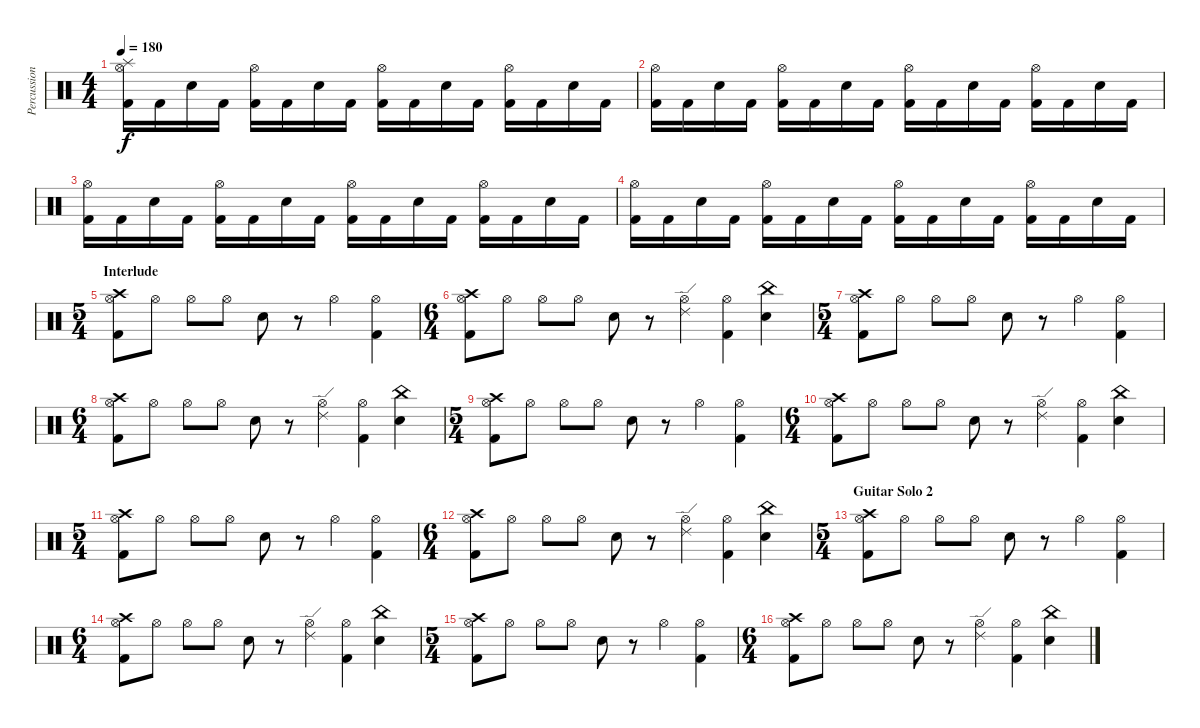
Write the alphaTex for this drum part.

\track ("Percussions" "Percussion") {instrument percussion}
\staff {score}
\articulation defaults
\ts (4 4)
\tempo 180
\clef neutral
\ks c
("Splash (hit)" "Hi-Hat (open)" "Kick (hit) 2").16{dy f} "Kick (hit) 2".16 "Electric Snare (hit)".16 "Kick (hit) 2".16 ("Hi-Hat (open)" "Kick (hit) 2").16 "Kick (hit) 2".16 "Electric Snare (hit)".16 "Kick (hit) 2".16 ("Hi-Hat (open)" "Kick (hit) 2").16 "Kick (hit) 2".16 "Electric Snare (hit)".16 "Kick (hit) 2".16 ("Hi-Hat (open)" "Kick (hit) 2").16 "Kick (hit) 2".16 "Electric Snare (hit)".16 "Kick (hit) 2".16 |
("Hi-Hat (open)" "Kick (hit) 2").16 "Kick (hit) 2".16 "Electric Snare (hit)".16 "Kick (hit) 2".16 ("Hi-Hat (open)" "Kick (hit) 2").16 "Kick (hit) 2".16 "Electric Snare (hit)".16 "Kick (hit) 2".16 ("Hi-Hat (open)" "Kick (hit) 2").16 "Kick (hit) 2".16 "Electric Snare (hit)".16 "Kick (hit) 2".16 ("Hi-Hat (open)" "Kick (hit) 2").16 "Kick (hit) 2".16 "Electric Snare (hit)".16 "Kick (hit) 2".16 |
("Hi-Hat (open)" "Kick (hit) 2").16 "Kick (hit) 2".16 "Electric Snare (hit)".16 "Kick (hit) 2".16 ("Hi-Hat (open)" "Kick (hit) 2").16 "Kick (hit) 2".16 "Electric Snare (hit)".16 "Kick (hit) 2".16 ("Hi-Hat (open)" "Kick (hit) 2").16 "Kick (hit) 2".16 "Electric Snare (hit)".16 "Kick (hit) 2".16 ("Hi-Hat (open)" "Kick (hit) 2").16 "Kick (hit) 2".16 "Electric Snare (hit)".16 "Kick (hit) 2".16 |
("Hi-Hat (open)" "Kick (hit) 2").16 "Kick (hit) 2".16 "Electric Snare (hit)".16 "Kick (hit) 2".16 ("Hi-Hat (open)" "Kick (hit) 2").16 "Kick (hit) 2".16 "Electric Snare (hit)".16 "Kick (hit) 2".16 ("Hi-Hat (open)" "Kick (hit) 2").16 "Kick (hit) 2".16 "Electric Snare (hit)".16 "Kick (hit) 2".16 ("Hi-Hat (open)" "Kick (hit) 2").16 "Kick (hit) 2".16 "Electric Snare (hit)".16 "Kick (hit) 2".16 |
\ts (5 4)
\section ("" "Interlude")
("Crash high (hit)" "Hi-Hat (open)" "Kick (hit) 2").8 "Hi-Hat (open)".8 "Hi-Hat (open)".8 "Hi-Hat (open)".8 "Electric Snare (hit)".8 r.8 "Hi-Hat (open)".4 ("Hi-Hat (open)" "Kick (hit) 2").4 |
\ts (6 4)
("Crash high (hit)" "Hi-Hat (open)" "Kick (hit) 2").8 "Hi-Hat (open)".8 "Hi-Hat (open)".8 "Hi-Hat (open)".8 "Electric Snare (hit)".8 r.8 ("Ride (edge) 2" "Hi-Hat (open)").4 ("Hi-Hat (open)" "Kick (hit) 2").4 ("China (hit)" "Electric Snare (hit)").4 |
\ts (5 4)
("Crash high (hit)" "Hi-Hat (open)" "Kick (hit) 2").8 "Hi-Hat (open)".8 "Hi-Hat (open)".8 "Hi-Hat (open)".8 "Electric Snare (hit)".8 r.8 "Hi-Hat (open)".4 ("Hi-Hat (open)" "Kick (hit) 2").4 |
\ts (6 4)
("Crash high (hit)" "Hi-Hat (open)" "Kick (hit) 2").8 "Hi-Hat (open)".8 "Hi-Hat (open)".8 "Hi-Hat (open)".8 "Electric Snare (hit)".8 r.8 ("Ride (edge) 2" "Hi-Hat (open)").4 ("Hi-Hat (open)" "Kick (hit) 2").4 ("China (hit)" "Electric Snare (hit)").4 |
\ts (5 4)
("Crash high (hit)" "Hi-Hat (open)" "Kick (hit) 2").8 "Hi-Hat (open)".8 "Hi-Hat (open)".8 "Hi-Hat (open)".8 "Electric Snare (hit)".8 r.8 "Hi-Hat (open)".4 ("Hi-Hat (open)" "Kick (hit) 2").4 |
\ts (6 4)
("Crash high (hit)" "Hi-Hat (open)" "Kick (hit) 2").8 "Hi-Hat (open)".8 "Hi-Hat (open)".8 "Hi-Hat (open)".8 "Electric Snare (hit)".8 r.8 ("Ride (edge) 2" "Hi-Hat (open)").4 ("Hi-Hat (open)" "Kick (hit) 2").4 ("China (hit)" "Electric Snare (hit)").4 |
\ts (5 4)
("Crash high (hit)" "Hi-Hat (open)" "Kick (hit) 2").8 "Hi-Hat (open)".8 "Hi-Hat (open)".8 "Hi-Hat (open)".8 "Electric Snare (hit)".8 r.8 "Hi-Hat (open)".4 ("Hi-Hat (open)" "Kick (hit) 2").4 |
\ts (6 4)
("Crash high (hit)" "Hi-Hat (open)" "Kick (hit) 2").8 "Hi-Hat (open)".8 "Hi-Hat (open)".8 "Hi-Hat (open)".8 "Electric Snare (hit)".8 r.8 ("Ride (edge) 2" "Hi-Hat (open)").4 ("Hi-Hat (open)" "Kick (hit) 2").4 ("China (hit)" "Electric Snare (hit)").4 |
\ts (5 4)
\section ("" "Guitar Solo 2")
("Crash high (hit)" "Hi-Hat (open)" "Kick (hit) 2").8 "Hi-Hat (open)".8 "Hi-Hat (open)".8 "Hi-Hat (open)".8 "Electric Snare (hit)".8 r.8 "Hi-Hat (open)".4 ("Hi-Hat (open)" "Kick (hit) 2").4 |
\ts (6 4)
("Crash high (hit)" "Hi-Hat (open)" "Kick (hit) 2").8 "Hi-Hat (open)".8 "Hi-Hat (open)".8 "Hi-Hat (open)".8 "Electric Snare (hit)".8 r.8 ("Ride (edge) 2" "Hi-Hat (open)").4 ("Hi-Hat (open)" "Kick (hit) 2").4 ("China (hit)" "Electric Snare (hit)").4 |
\ts (5 4)
("Crash high (hit)" "Hi-Hat (open)" "Kick (hit) 2").8 "Hi-Hat (open)".8 "Hi-Hat (open)".8 "Hi-Hat (open)".8 "Electric Snare (hit)".8 r.8 "Hi-Hat (open)".4 ("Hi-Hat (open)" "Kick (hit) 2").4 |
\ts (6 4)
("Crash high (hit)" "Hi-Hat (open)" "Kick (hit) 2").8 "Hi-Hat (open)".8 "Hi-Hat (open)".8 "Hi-Hat (open)".8 "Electric Snare (hit)".8 r.8 ("Ride (edge) 2" "Hi-Hat (open)").4 ("Hi-Hat (open)" "Kick (hit) 2").4 ("China (hit)" "Electric Snare (hit)").4
